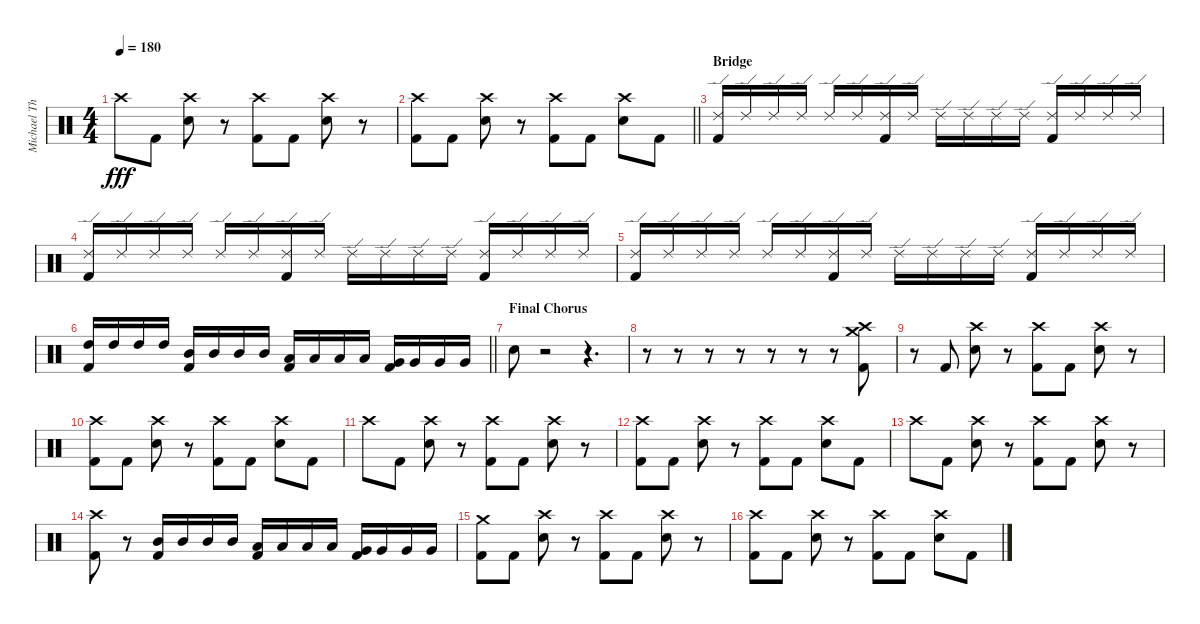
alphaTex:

\track ("Michael Thomas" "Michael Th") {instrument percussion}
\staff {score}
\articulation defaults
\ts (4 4)
\tempo 180
\clef neutral
\ks c "Crash high (hit)".8{dy fff} "Kick (hit) 2".8
("Crash high (hit)" "Electric Snare (hit)").8 r.8 ("Crash high (hit)" "Kick (hit) 2").8 "Kick (hit) 2".8 ("Crash high (hit)" "Electric Snare (hit)").8 r.8 |
\barLineRight lightlight
("Crash high (hit)" "Kick (hit) 2").8 "Kick (hit) 2".8 ("Crash high (hit)" "Electric Snare (hit)").8 r.8 ("Crash high (hit)" "Kick (hit) 2").8 "Kick (hit) 2".8 ("Crash high (hit)" "Electric Snare (hit)").8 "Kick (hit) 2".8 |
\section ("" "Bridge")
("Ride (edge) 2" "Kick (hit) 2").16 "Ride (edge) 2".16 "Ride (edge) 2".16 "Ride (edge) 2".16 "Ride (edge) 2".16 "Ride (edge) 2".16 ("Ride (edge) 2" "Kick (hit) 2").16 "Ride (edge) 2".16 "Ride (edge) 2".16 "Ride (edge) 2".16 "Ride (edge) 2".16 "Ride (edge) 2".16 ("Ride (edge) 2" "Kick (hit) 2").16 "Ride (edge) 2".16 "Ride (edge) 2".16 "Ride (edge) 2".16 |
("Ride (edge) 2" "Kick (hit) 2").16 "Ride (edge) 2".16 "Ride (edge) 2".16 "Ride (edge) 2".16 "Ride (edge) 2".16 "Ride (edge) 2".16 ("Ride (edge) 2" "Kick (hit) 2").16 "Ride (edge) 2".16 "Ride (edge) 2".16 "Ride (edge) 2".16 "Ride (edge) 2".16 "Ride (edge) 2".16 ("Ride (edge) 2" "Kick (hit) 2").16 "Ride (edge) 2".16 "Ride (edge) 2".16 "Ride (edge) 2".16 |
("Ride (edge) 2" "Kick (hit) 2").16 "Ride (edge) 2".16 "Ride (edge) 2".16 "Ride (edge) 2".16 "Ride (edge) 2".16 "Ride (edge) 2".16 ("Ride (edge) 2" "Kick (hit) 2").16 "Ride (edge) 2".16 "Ride (edge) 2".16 "Ride (edge) 2".16 "Ride (edge) 2".16 "Ride (edge) 2".16 ("Ride (edge) 2" "Kick (hit) 2").16 "Ride (edge) 2".16 "Ride (edge) 2".16 "Ride (edge) 2".16 |
\barLineRight lightlight
("High Tom (hit)" "Kick (hit) 2").16 "High Tom (hit)".16 "High Tom (hit)".16 "High Tom (hit)".16 ("Mid Tom (hit)" "Kick (hit) 2").16 "Mid Tom (hit)".16 "Mid Tom (hit)".16 "Mid Tom (hit)".16 ("Low Tom (hit)" "Kick (hit) 2").16 "Low Tom (hit)".16 "Low Tom (hit)".16 "Low Tom (hit)".16 ("Very Low Tom (hit)" "Kick (hit) 2").16 "Very Low Tom (hit)".16 "Very Low Tom (hit)".16 "Very Low Tom (hit)".16 |
\section ("" "Final Chorus")
"Electric Snare (hit)".8 r.2 r.4{d} |
r.8 r.8 r.8 r.8 r.8 r.8 r.8 ("Crash medium (hit)" "Crash high (hit)" "Kick (hit) 2").8 |
r.8 "Kick (hit) 2".8 ("Crash high (hit)" "Electric Snare (hit)").8 r.8 ("Crash high (hit)" "Kick (hit) 2").8 "Kick (hit) 2".8 ("Crash high (hit)" "Electric Snare (hit)").8 r.8 |
("Crash high (hit)" "Kick (hit) 2").8 "Kick (hit) 2".8 ("Crash high (hit)" "Electric Snare (hit)").8 r.8 ("Crash high (hit)" "Kick (hit) 2").8 "Kick (hit) 2".8 ("Crash high (hit)" "Electric Snare (hit)").8 "Kick (hit) 2".8 |
"Crash high (hit)".8 "Kick (hit) 2".8 ("Crash high (hit)" "Electric Snare (hit)").8 r.8 ("Crash high (hit)" "Kick (hit) 2").8 "Kick (hit) 2".8 ("Crash high (hit)" "Electric Snare (hit)").8 r.8 |
("Crash high (hit)" "Kick (hit) 2").8 "Kick (hit) 2".8 ("Crash high (hit)" "Electric Snare (hit)").8 r.8 ("Crash high (hit)" "Kick (hit) 2").8 "Kick (hit) 2".8 ("Crash high (hit)" "Electric Snare (hit)").8 "Kick (hit) 2".8 |
"Crash high (hit)".8 "Kick (hit) 2".8 ("Crash high (hit)" "Electric Snare (hit)").8 r.8 ("Crash high (hit)" "Kick (hit) 2").8 "Kick (hit) 2".8 ("Crash high (hit)" "Electric Snare (hit)").8 r.8 |
("Crash high (hit)" "Kick (hit) 2").8 r.8 ("Mid Tom (hit)" "Kick (hit) 2").16 "Mid Tom (hit)".16 "Mid Tom (hit)".16 "Mid Tom (hit)".16 ("Low Tom (hit)" "Kick (hit) 2").16 "Low Tom (hit)".16 "Low Tom (hit)".16 "Low Tom (hit)".16 ("Very Low Tom (hit)" "Kick (hit) 2").16 "Very Low Tom (hit)".16 "Very Low Tom (hit)".16 "Very Low Tom (hit)".16 |
("Crash medium (hit)" "Kick (hit) 2").8 "Kick (hit) 2".8 ("Crash high (hit)" "Electric Snare (hit)").8 r.8 ("Crash high (hit)" "Kick (hit) 2").8 "Kick (hit) 2".8 ("Crash high (hit)" "Electric Snare (hit)").8 r.8 |
("Crash high (hit)" "Kick (hit) 2").8 "Kick (hit) 2".8 ("Crash high (hit)" "Electric Snare (hit)").8 r.8 ("Crash high (hit)" "Kick (hit) 2").8 "Kick (hit) 2".8 ("Crash high (hit)" "Electric Snare (hit)").8 "Kick (hit) 2".8
